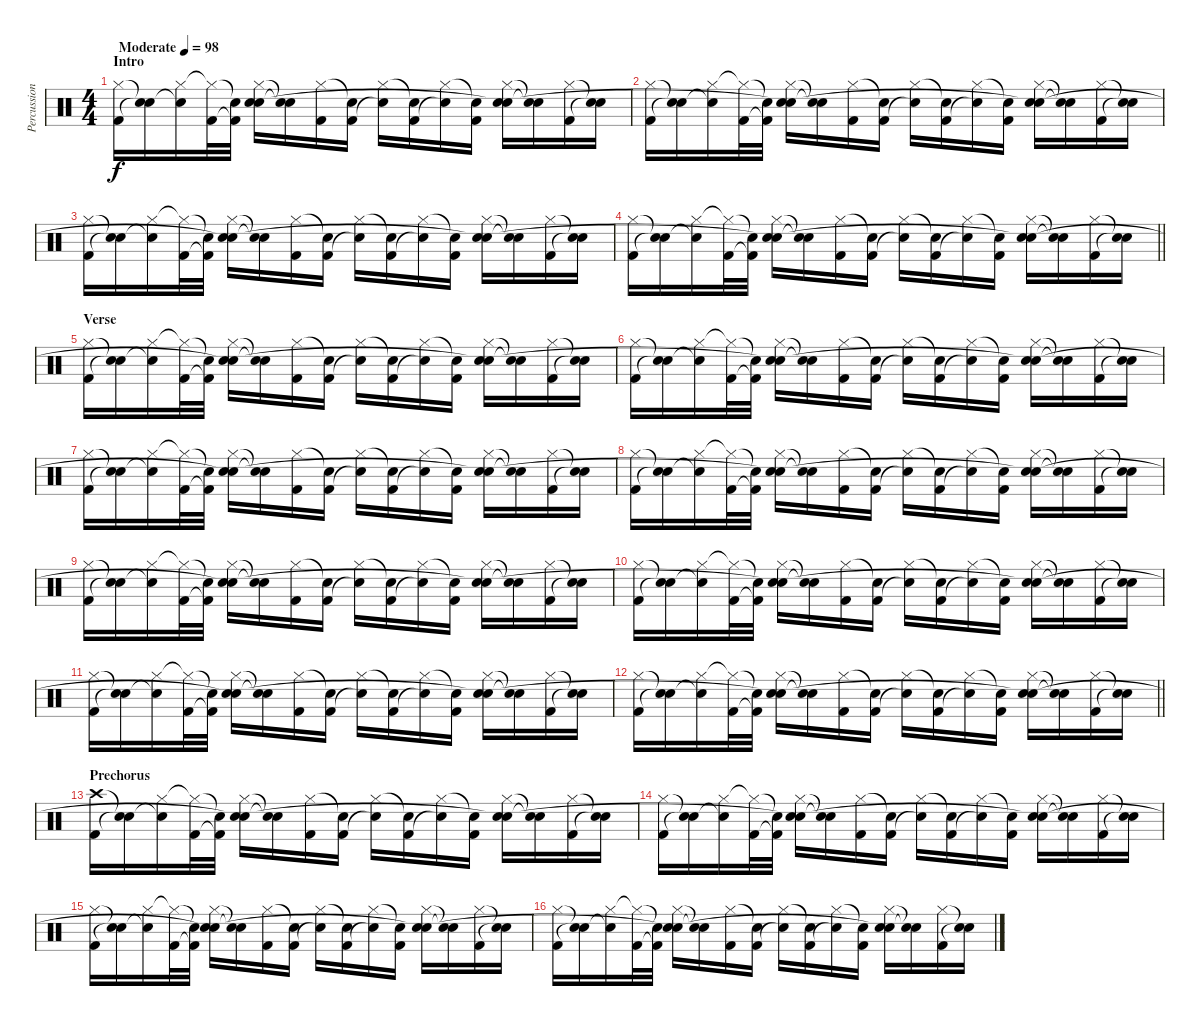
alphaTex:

\track ("Percussion" "Percussion") {instrument percussion}
\staff {score}
\articulation defaults
\ts (4 4)
\section ("" "Intro")
\tempo (98 "Moderate")
\clef neutral
\ks c
("Hi-Hat (closed)" "Kick (hit) 2").16{dy f} ("Snare (hit)"{t} "Snare (hit)"{t}).16 ("Hi-Hat (closed)" "Snare (hit)"{t}).16 ("Hi-Hat (closed)"{t} "Kick (hit) 2").32 ("Snare (hit)"{t} "Kick (hit) 2"{t}).32 ("Hi-Hat (closed)" "Electric Snare (hit)" "Snare (hit)").16 ("Snare (hit)"{t} "Snare (hit)"{t}).16 ("Hi-Hat (closed)" "Kick (hit) 2").16 ("Snare (hit)"{t} "Kick (hit) 2").16 ("Hi-Hat (closed)" "Snare (hit)"{t}).16 ("Snare (hit)"{t} "Kick (hit) 2").16 ("Hi-Hat (closed)" "Snare (hit)"{t}).16 ("Snare (hit)"{t} "Kick (hit) 2").16 ("Hi-Hat (closed)" "Electric Snare (hit)" "Snare (hit)"{t}).16 ("Snare (hit)"{t} "Snare (hit)"{t}).16 ("Hi-Hat (closed)" "Kick (hit) 2").16 ("Snare (hit)"{t} "Snare (hit)"{t}).16 |
("Hi-Hat (closed)" "Kick (hit) 2").16 ("Snare (hit)"{t} "Snare (hit)"{t}).16 ("Hi-Hat (closed)" "Snare (hit)"{t}).16 ("Hi-Hat (closed)"{t} "Kick (hit) 2").32 ("Snare (hit)"{t} "Kick (hit) 2"{t}).32 ("Hi-Hat (closed)" "Electric Snare (hit)" "Snare (hit)"{t}).16 ("Snare (hit)"{t} "Snare (hit)"{t}).16 ("Hi-Hat (closed)" "Kick (hit) 2").16 ("Snare (hit)"{t} "Kick (hit) 2").16 ("Hi-Hat (closed)" "Snare (hit)"{t}).16 ("Snare (hit)"{t} "Kick (hit) 2").16 ("Hi-Hat (closed)" "Snare (hit)"{t}).16 ("Snare (hit)"{t} "Kick (hit) 2").16 ("Hi-Hat (closed)" "Electric Snare (hit)" "Snare (hit)"{t}).16 ("Snare (hit)"{t} "Snare (hit)"{t}).16 ("Hi-Hat (closed)" "Kick (hit) 2").16 ("Snare (hit)"{t} "Snare (hit)"{t}).16 |
("Hi-Hat (closed)" "Kick (hit) 2").16 ("Snare (hit)"{t} "Snare (hit)"{t}).16 ("Hi-Hat (closed)" "Snare (hit)"{t}).16 ("Hi-Hat (closed)"{t} "Kick (hit) 2").32 ("Snare (hit)"{t} "Kick (hit) 2"{t}).32 ("Hi-Hat (closed)" "Electric Snare (hit)" "Snare (hit)"{t}).16 ("Snare (hit)"{t} "Snare (hit)"{t}).16 ("Hi-Hat (closed)" "Kick (hit) 2").16 ("Snare (hit)"{t} "Kick (hit) 2").16 ("Hi-Hat (closed)" "Snare (hit)"{t}).16 ("Snare (hit)"{t} "Kick (hit) 2").16 ("Hi-Hat (closed)" "Snare (hit)"{t}).16 ("Snare (hit)"{t} "Kick (hit) 2").16 ("Hi-Hat (closed)" "Electric Snare (hit)" "Snare (hit)"{t}).16 ("Snare (hit)"{t} "Snare (hit)"{t}).16 ("Hi-Hat (closed)" "Kick (hit) 2").16 ("Snare (hit)"{t} "Snare (hit)"{t}).16 |
\barLineRight lightlight
("Hi-Hat (closed)" "Kick (hit) 2").16 ("Snare (hit)"{t} "Snare (hit)"{t}).16 ("Hi-Hat (closed)" "Snare (hit)"{t}).16 ("Hi-Hat (closed)"{t} "Kick (hit) 2").32 ("Snare (hit)"{t} "Kick (hit) 2"{t}).32 ("Hi-Hat (closed)" "Electric Snare (hit)" "Snare (hit)"{t}).16 ("Snare (hit)"{t} "Snare (hit)"{t}).16 ("Hi-Hat (closed)" "Kick (hit) 2").16 ("Snare (hit)"{t} "Kick (hit) 2").16 ("Hi-Hat (closed)" "Snare (hit)"{t}).16 ("Snare (hit)"{t} "Kick (hit) 2").16 ("Hi-Hat (closed)" "Snare (hit)"{t}).16 ("Snare (hit)"{t} "Kick (hit) 2").16 ("Hi-Hat (closed)" "Electric Snare (hit)" "Snare (hit)"{t}).16 ("Snare (hit)"{t} "Snare (hit)"{t}).16 ("Hi-Hat (closed)" "Kick (hit) 2").16 ("Snare (hit)"{t} "Snare (hit)"{t}).16 |
\section ("" "Verse")
("Hi-Hat (closed)" "Kick (hit) 2").16 ("Snare (hit)"{t} "Snare (hit)"{t}).16 ("Hi-Hat (closed)" "Snare (hit)"{t}).16 ("Hi-Hat (closed)"{t} "Kick (hit) 2").32 ("Snare (hit)"{t} "Kick (hit) 2"{t}).32 ("Hi-Hat (closed)" "Electric Snare (hit)" "Snare (hit)"{t}).16 ("Snare (hit)"{t} "Snare (hit)"{t}).16 ("Hi-Hat (closed)" "Kick (hit) 2").16 ("Snare (hit)"{t} "Kick (hit) 2").16 ("Hi-Hat (closed)" "Snare (hit)"{t}).16 ("Snare (hit)"{t} "Kick (hit) 2").16 ("Hi-Hat (closed)" "Snare (hit)"{t}).16 ("Snare (hit)"{t} "Kick (hit) 2").16 ("Hi-Hat (closed)" "Electric Snare (hit)" "Snare (hit)"{t}).16 ("Snare (hit)"{t} "Snare (hit)"{t}).16 ("Hi-Hat (closed)" "Kick (hit) 2").16 ("Snare (hit)"{t} "Snare (hit)"{t}).16 |
("Hi-Hat (closed)" "Kick (hit) 2").16 ("Snare (hit)"{t} "Snare (hit)"{t}).16 ("Hi-Hat (closed)" "Snare (hit)"{t}).16 ("Hi-Hat (closed)"{t} "Kick (hit) 2").32 ("Snare (hit)"{t} "Kick (hit) 2"{t}).32 ("Hi-Hat (closed)" "Electric Snare (hit)" "Snare (hit)"{t}).16 ("Snare (hit)"{t} "Snare (hit)"{t}).16 ("Hi-Hat (closed)" "Kick (hit) 2").16 ("Snare (hit)"{t} "Kick (hit) 2").16 ("Hi-Hat (closed)" "Snare (hit)"{t}).16 ("Snare (hit)"{t} "Kick (hit) 2").16 ("Hi-Hat (closed)" "Snare (hit)"{t}).16 ("Snare (hit)"{t} "Kick (hit) 2").16 ("Hi-Hat (closed)" "Electric Snare (hit)" "Snare (hit)"{t}).16 ("Snare (hit)"{t} "Snare (hit)"{t}).16 ("Hi-Hat (closed)" "Kick (hit) 2").16 ("Snare (hit)"{t} "Snare (hit)"{t}).16 |
("Hi-Hat (closed)" "Kick (hit) 2").16 ("Snare (hit)"{t} "Snare (hit)"{t}).16 ("Hi-Hat (closed)" "Snare (hit)"{t}).16 ("Hi-Hat (closed)"{t} "Kick (hit) 2").32 ("Snare (hit)"{t} "Kick (hit) 2"{t}).32 ("Hi-Hat (closed)" "Electric Snare (hit)" "Snare (hit)"{t}).16 ("Snare (hit)"{t} "Snare (hit)"{t}).16 ("Hi-Hat (closed)" "Kick (hit) 2").16 ("Snare (hit)"{t} "Kick (hit) 2").16 ("Hi-Hat (closed)" "Snare (hit)"{t}).16 ("Snare (hit)"{t} "Kick (hit) 2").16 ("Hi-Hat (closed)" "Snare (hit)"{t}).16 ("Snare (hit)"{t} "Kick (hit) 2").16 ("Hi-Hat (closed)" "Electric Snare (hit)" "Snare (hit)"{t}).16 ("Snare (hit)"{t} "Snare (hit)"{t}).16 ("Hi-Hat (closed)" "Kick (hit) 2").16 ("Snare (hit)"{t} "Snare (hit)"{t}).16 |
("Hi-Hat (closed)" "Kick (hit) 2").16 ("Snare (hit)"{t} "Snare (hit)"{t}).16 ("Hi-Hat (closed)" "Snare (hit)"{t}).16 ("Hi-Hat (closed)"{t} "Kick (hit) 2").32 ("Snare (hit)"{t} "Kick (hit) 2"{t}).32 ("Hi-Hat (closed)" "Electric Snare (hit)" "Snare (hit)"{t}).16 ("Snare (hit)"{t} "Snare (hit)"{t}).16 ("Hi-Hat (closed)" "Kick (hit) 2").16 ("Snare (hit)"{t} "Kick (hit) 2").16 ("Hi-Hat (closed)" "Snare (hit)"{t}).16 ("Snare (hit)"{t} "Kick (hit) 2").16 ("Hi-Hat (closed)" "Snare (hit)"{t}).16 ("Snare (hit)"{t} "Kick (hit) 2").16 ("Hi-Hat (closed)" "Electric Snare (hit)" "Snare (hit)"{t}).16 ("Snare (hit)"{t} "Snare (hit)"{t}).16 ("Hi-Hat (closed)" "Kick (hit) 2").16 ("Snare (hit)"{t} "Snare (hit)"{t}).16 |
("Hi-Hat (closed)" "Kick (hit) 2").16 ("Snare (hit)"{t} "Snare (hit)"{t}).16 ("Hi-Hat (closed)" "Snare (hit)"{t}).16 ("Hi-Hat (closed)"{t} "Kick (hit) 2").32 ("Snare (hit)"{t} "Kick (hit) 2"{t}).32 ("Hi-Hat (closed)" "Electric Snare (hit)" "Snare (hit)"{t}).16 ("Snare (hit)"{t} "Snare (hit)"{t}).16 ("Hi-Hat (closed)" "Kick (hit) 2").16 ("Snare (hit)"{t} "Kick (hit) 2").16 ("Hi-Hat (closed)" "Snare (hit)"{t}).16 ("Snare (hit)"{t} "Kick (hit) 2").16 ("Hi-Hat (closed)" "Snare (hit)"{t}).16 ("Snare (hit)"{t} "Kick (hit) 2").16 ("Hi-Hat (closed)" "Electric Snare (hit)" "Snare (hit)"{t}).16 ("Snare (hit)"{t} "Snare (hit)"{t}).16 ("Hi-Hat (closed)" "Kick (hit) 2").16 ("Snare (hit)"{t} "Snare (hit)"{t}).16 |
("Hi-Hat (closed)" "Kick (hit) 2").16 ("Snare (hit)"{t} "Snare (hit)"{t}).16 ("Hi-Hat (closed)" "Snare (hit)"{t}).16 ("Hi-Hat (closed)"{t} "Kick (hit) 2").32 ("Snare (hit)"{t} "Kick (hit) 2"{t}).32 ("Hi-Hat (closed)" "Electric Snare (hit)" "Snare (hit)"{t}).16 ("Snare (hit)"{t} "Snare (hit)"{t}).16 ("Hi-Hat (closed)" "Kick (hit) 2").16 ("Snare (hit)"{t} "Kick (hit) 2").16 ("Hi-Hat (closed)" "Snare (hit)"{t}).16 ("Snare (hit)"{t} "Kick (hit) 2").16 ("Hi-Hat (closed)" "Snare (hit)"{t}).16 ("Snare (hit)"{t} "Kick (hit) 2").16 ("Hi-Hat (closed)" "Electric Snare (hit)" "Snare (hit)"{t}).16 ("Snare (hit)"{t} "Snare (hit)"{t}).16 ("Hi-Hat (closed)" "Kick (hit) 2").16 ("Snare (hit)"{t} "Snare (hit)"{t}).16 |
("Hi-Hat (closed)" "Kick (hit) 2").16 ("Snare (hit)"{t} "Snare (hit)"{t}).16 ("Hi-Hat (closed)" "Snare (hit)"{t}).16 ("Hi-Hat (closed)"{t} "Kick (hit) 2").32 ("Snare (hit)"{t} "Kick (hit) 2"{t}).32 ("Hi-Hat (closed)" "Electric Snare (hit)" "Snare (hit)"{t}).16 ("Snare (hit)"{t} "Snare (hit)"{t}).16 ("Hi-Hat (closed)" "Kick (hit) 2").16 ("Snare (hit)"{t} "Kick (hit) 2").16 ("Hi-Hat (closed)" "Snare (hit)"{t}).16 ("Snare (hit)"{t} "Kick (hit) 2").16 ("Hi-Hat (closed)" "Snare (hit)"{t}).16 ("Snare (hit)"{t} "Kick (hit) 2").16 ("Hi-Hat (closed)" "Electric Snare (hit)" "Snare (hit)"{t}).16 ("Snare (hit)"{t} "Snare (hit)"{t}).16 ("Hi-Hat (closed)" "Kick (hit) 2").16 ("Snare (hit)"{t} "Snare (hit)"{t}).16 |
\barLineRight lightlight
("Hi-Hat (closed)" "Kick (hit) 2").16 ("Snare (hit)"{t} "Snare (hit)"{t}).16 ("Hi-Hat (closed)" "Snare (hit)"{t}).16 ("Hi-Hat (closed)"{t} "Kick (hit) 2").32 ("Snare (hit)"{t} "Kick (hit) 2"{t}).32 ("Hi-Hat (closed)" "Electric Snare (hit)" "Snare (hit)"{t}).16 ("Snare (hit)"{t} "Snare (hit)"{t}).16 ("Hi-Hat (closed)" "Kick (hit) 2").16 ("Snare (hit)"{t} "Kick (hit) 2").16 ("Hi-Hat (closed)" "Snare (hit)"{t}).16 ("Snare (hit)"{t} "Kick (hit) 2").16 ("Hi-Hat (closed)" "Snare (hit)"{t}).16 ("Snare (hit)"{t} "Kick (hit) 2").16 ("Hi-Hat (closed)" "Electric Snare (hit)" "Snare (hit)"{t}).16 ("Snare (hit)"{t} "Snare (hit)"{t}).16 ("Hi-Hat (closed)" "Kick (hit) 2").16 ("Snare (hit)"{t} "Snare (hit)"{t}).16 |
\section ("" "Prechorus")
("Crash high (hit)" "Kick (hit) 2").16 ("Snare (hit)"{t} "Snare (hit)"{t}).16 ("Hi-Hat (closed)" "Snare (hit)"{t}).16 ("Hi-Hat (closed)"{t} "Kick (hit) 2").32 ("Snare (hit)"{t} "Kick (hit) 2"{t}).32 ("Hi-Hat (closed)" "Electric Snare (hit)" "Snare (hit)"{t}).16 ("Snare (hit)"{t} "Snare (hit)"{t}).16 ("Hi-Hat (closed)" "Kick (hit) 2").16 ("Snare (hit)"{t} "Kick (hit) 2").16 ("Hi-Hat (closed)" "Snare (hit)"{t}).16 ("Snare (hit)"{t} "Kick (hit) 2").16 ("Hi-Hat (closed)" "Snare (hit)"{t}).16 ("Snare (hit)"{t} "Kick (hit) 2").16 ("Hi-Hat (closed)" "Electric Snare (hit)" "Snare (hit)"{t}).16 ("Snare (hit)"{t} "Snare (hit)"{t}).16 ("Hi-Hat (closed)" "Kick (hit) 2").16 ("Snare (hit)"{t} "Snare (hit)"{t}).16 |
("Hi-Hat (closed)" "Kick (hit) 2").16 ("Snare (hit)"{t} "Snare (hit)"{t}).16 ("Hi-Hat (closed)" "Snare (hit)"{t}).16 ("Hi-Hat (closed)"{t} "Kick (hit) 2").32 ("Snare (hit)"{t} "Kick (hit) 2"{t}).32 ("Hi-Hat (closed)" "Electric Snare (hit)" "Snare (hit)"{t}).16 ("Snare (hit)"{t} "Snare (hit)"{t}).16 ("Hi-Hat (closed)" "Kick (hit) 2").16 ("Snare (hit)"{t} "Kick (hit) 2").16 ("Hi-Hat (closed)" "Snare (hit)"{t}).16 ("Snare (hit)"{t} "Kick (hit) 2").16 ("Hi-Hat (closed)" "Snare (hit)"{t}).16 ("Snare (hit)"{t} "Kick (hit) 2").16 ("Hi-Hat (closed)" "Electric Snare (hit)" "Snare (hit)"{t}).16 ("Snare (hit)"{t} "Snare (hit)"{t}).16 ("Hi-Hat (closed)" "Kick (hit) 2").16 ("Snare (hit)"{t} "Snare (hit)"{t}).16 |
("Hi-Hat (closed)" "Kick (hit) 2").16 ("Snare (hit)"{t} "Snare (hit)"{t}).16 ("Hi-Hat (closed)" "Snare (hit)"{t}).16 ("Hi-Hat (closed)"{t} "Kick (hit) 2").32 ("Snare (hit)"{t} "Kick (hit) 2"{t}).32 ("Hi-Hat (closed)" "Electric Snare (hit)" "Snare (hit)"{t}).16 ("Snare (hit)"{t} "Snare (hit)"{t}).16 ("Hi-Hat (closed)" "Kick (hit) 2").16 ("Snare (hit)"{t} "Kick (hit) 2").16 ("Hi-Hat (closed)" "Snare (hit)"{t}).16 ("Snare (hit)"{t} "Kick (hit) 2").16 ("Hi-Hat (closed)" "Snare (hit)"{t}).16 ("Snare (hit)"{t} "Kick (hit) 2").16 ("Hi-Hat (closed)" "Electric Snare (hit)" "Snare (hit)"{t}).16 ("Snare (hit)"{t} "Snare (hit)"{t}).16 ("Hi-Hat (closed)" "Kick (hit) 2").16 ("Snare (hit)"{t} "Snare (hit)"{t}).16 |
("Hi-Hat (closed)" "Kick (hit) 2").16 ("Snare (hit)"{t} "Snare (hit)"{t}).16 ("Hi-Hat (closed)" "Snare (hit)"{t}).16 ("Hi-Hat (closed)"{t} "Kick (hit) 2").32 ("Snare (hit)"{t} "Kick (hit) 2"{t}).32 ("Hi-Hat (closed)" "Electric Snare (hit)" "Snare (hit)"{t}).16 ("Snare (hit)"{t} "Snare (hit)"{t}).16 ("Hi-Hat (closed)" "Kick (hit) 2").16 ("Snare (hit)"{t} "Kick (hit) 2").16 ("Hi-Hat (closed)" "Snare (hit)"{t}).16 ("Snare (hit)"{t} "Kick (hit) 2").16 ("Hi-Hat (closed)" "Snare (hit)"{t}).16 ("Snare (hit)"{t} "Kick (hit) 2").16 ("Hi-Hat (closed)" "Electric Snare (hit)" "Snare (hit)"{t}).16 ("Snare (hit)"{t} "Snare (hit)"{t}).16 ("Hi-Hat (closed)" "Kick (hit) 2").16 ("Snare (hit)"{t} "Snare (hit)"{t}).16
